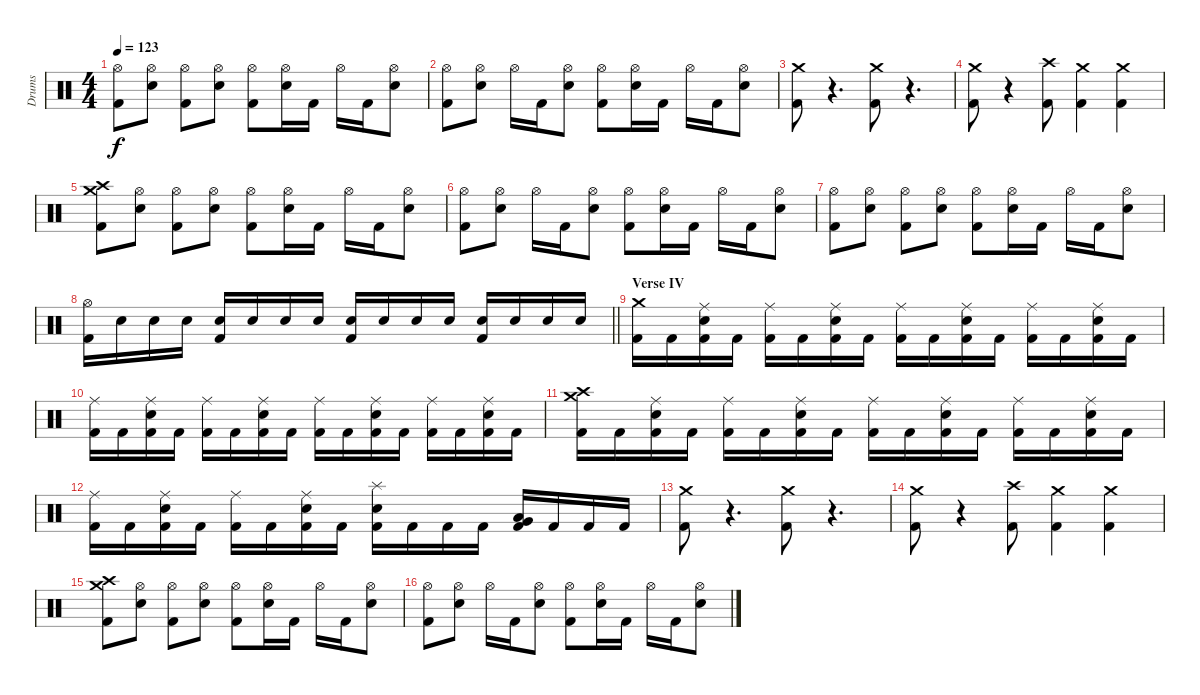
\track ("Drums" "Drums") {instrument percussion}
\staff {score}
\articulation defaults
\ts (4 4)
\tempo 123
\clef neutral
\ks c
("Hi-Hat (open)" "Kick (hit) 2").8{dy f} ("Hi-Hat (open)" "Electric Snare (hit)").8 ("Hi-Hat (open)" "Kick (hit) 2").8 ("Hi-Hat (open)" "Electric Snare (hit)").8 ("Hi-Hat (open)" "Kick (hit) 2").8 ("Hi-Hat (open)" "Electric Snare (hit)").16 "Kick (hit) 2".16 "Hi-Hat (open)".16 "Kick (hit) 2".16 ("Hi-Hat (open)" "Electric Snare (hit)").8 |
("Hi-Hat (open)" "Kick (hit) 2").8 ("Hi-Hat (open)" "Electric Snare (hit)").8 "Hi-Hat (open)".16 "Kick (hit) 2".16 ("Hi-Hat (open)" "Electric Snare (hit)").8 ("Hi-Hat (open)" "Kick (hit) 2").8 ("Hi-Hat (open)" "Electric Snare (hit)").16 "Kick (hit) 2".16 "Hi-Hat (open)".16 "Kick (hit) 2".16 ("Hi-Hat (open)" "Electric Snare (hit)").8 |
("Crash medium (hit)" "Kick (hit) 2").8 r.4{d volume 0} ("Crash medium (hit)" "Kick (hit) 2").8{volume 16} r.4{d volume 0} |
("Crash medium (hit)" "Kick (hit) 2").8{volume 16} r.4{volume 0} ("Crash high (hit)" "Kick (hit) 2").8{volume 16} ("Crash medium (hit)" "Kick (hit) 2").4 ("Crash medium (hit)" "Kick (hit) 2").4 |
("Crash medium (hit)" "Crash high (hit)" "Kick (hit) 2").8 ("Hi-Hat (open)" "Electric Snare (hit)").8 ("Hi-Hat (open)" "Kick (hit) 2").8 ("Hi-Hat (open)" "Electric Snare (hit)").8 ("Hi-Hat (open)" "Kick (hit) 2").8 ("Hi-Hat (open)" "Electric Snare (hit)").16 "Kick (hit) 2".16 "Hi-Hat (open)".16 "Kick (hit) 2".16 ("Hi-Hat (open)" "Electric Snare (hit)").8 |
("Hi-Hat (open)" "Kick (hit) 2").8 ("Hi-Hat (open)" "Electric Snare (hit)").8 "Hi-Hat (open)".16 "Kick (hit) 2".16 ("Hi-Hat (open)" "Electric Snare (hit)").8 ("Hi-Hat (open)" "Kick (hit) 2").8 ("Hi-Hat (open)" "Electric Snare (hit)").16 "Kick (hit) 2".16 "Hi-Hat (open)".16 "Kick (hit) 2".16 ("Hi-Hat (open)" "Electric Snare (hit)").8 |
("Hi-Hat (open)" "Kick (hit) 2").8 ("Hi-Hat (open)" "Electric Snare (hit)").8 ("Hi-Hat (open)" "Kick (hit) 2").8 ("Hi-Hat (open)" "Electric Snare (hit)").8 ("Hi-Hat (open)" "Kick (hit) 2").8 ("Hi-Hat (open)" "Electric Snare (hit)").16 "Kick (hit) 2".16 "Hi-Hat (open)".16 "Kick (hit) 2".16 ("Hi-Hat (open)" "Electric Snare (hit)").8 |
\barLineRight lightlight
("Hi-Hat (open)" "Kick (hit) 2").16 "Electric Snare (hit)".16 "Electric Snare (hit)".16 "Electric Snare (hit)".16 ("Electric Snare (hit)" "Kick (hit) 2").16 "Electric Snare (hit)".16 "Electric Snare (hit)".16 "Electric Snare (hit)".16 ("Electric Snare (hit)" "Kick (hit) 2").16 "Electric Snare (hit)".16 "Electric Snare (hit)".16 "Electric Snare (hit)".16 ("Electric Snare (hit)" "Kick (hit) 2").16 "Electric Snare (hit)".16 "Electric Snare (hit)".16 "Electric Snare (hit)".16 |
\section ("" "Verse IV")
("Crash medium (hit)" "Kick (hit) 2").16 "Kick (hit) 2".16 ("Ride (middle)" "Electric Snare (hit)" "Kick (hit) 2").16 "Kick (hit) 2".16 ("Ride (middle)" "Kick (hit) 2").16 "Kick (hit) 2".16 ("Ride (middle)" "Electric Snare (hit)" "Kick (hit) 2").16 "Kick (hit) 2".16 ("Ride (middle)" "Kick (hit) 2").16 "Kick (hit) 2".16 ("Ride (middle)" "Electric Snare (hit)" "Kick (hit) 2").16 "Kick (hit) 2".16 ("Ride (middle)" "Kick (hit) 2").16 "Kick (hit) 2".16 ("Ride (middle)" "Electric Snare (hit)" "Kick (hit) 2").16 "Kick (hit) 2".16 |
("Ride (middle)" "Kick (hit) 2").16 "Kick (hit) 2".16 ("Ride (middle)" "Electric Snare (hit)" "Kick (hit) 2").16 "Kick (hit) 2".16 ("Ride (middle)" "Kick (hit) 2").16 "Kick (hit) 2".16 ("Ride (middle)" "Electric Snare (hit)" "Kick (hit) 2").16 "Kick (hit) 2".16 ("Ride (middle)" "Kick (hit) 2").16 "Kick (hit) 2".16 ("Ride (middle)" "Electric Snare (hit)" "Kick (hit) 2").16 "Kick (hit) 2".16 ("Ride (middle)" "Kick (hit) 2").16 "Kick (hit) 2".16 ("Ride (middle)" "Electric Snare (hit)" "Kick (hit) 2").16 "Kick (hit) 2".16 |
("Crash medium (hit)" "Crash high (hit)" "Kick (hit) 2").16 "Kick (hit) 2".16 ("Ride (middle)" "Electric Snare (hit)" "Kick (hit) 2").16 "Kick (hit) 2".16 ("Ride (middle)" "Kick (hit) 2").16 "Kick (hit) 2".16 ("Ride (middle)" "Electric Snare (hit)" "Kick (hit) 2").16 "Kick (hit) 2".16 ("Ride (middle)" "Kick (hit) 2").16 "Kick (hit) 2".16 ("Ride (middle)" "Electric Snare (hit)" "Kick (hit) 2").16 "Kick (hit) 2".16 ("Ride (middle)" "Kick (hit) 2").16 "Kick (hit) 2".16 ("Ride (middle)" "Electric Snare (hit)" "Kick (hit) 2").16 "Kick (hit) 2".16 |
("Ride (middle)" "Kick (hit) 2").16 "Kick (hit) 2".16 ("Ride (middle)" "Electric Snare (hit)" "Kick (hit) 2").16 "Kick (hit) 2".16 ("Ride (middle)" "Kick (hit) 2").16 "Kick (hit) 2".16 ("Ride (middle)" "Electric Snare (hit)" "Kick (hit) 2").16 "Kick (hit) 2".16 ("Splash (hit)" "Electric Snare (hit)" "Kick (hit) 2").16 "Kick (hit) 2".16 "Kick (hit) 2".16 "Kick (hit) 2".16 ("Very Low Tom (hit)" "Low Floor Tom (hit)" "Kick (hit) 2").16 "Kick (hit) 2".16 "Kick (hit) 2".16 "Kick (hit) 2".16 |
("Crash medium (hit)" "Kick (hit) 2").8 r.4{d volume 0} ("Crash medium (hit)" "Kick (hit) 2").8{volume 16} r.4{d volume 0} |
("Crash medium (hit)" "Kick (hit) 2").8{volume 16} r.4{volume 0} ("Crash high (hit)" "Kick (hit) 2").8{volume 16} ("Crash medium (hit)" "Kick (hit) 2").4 ("Crash medium (hit)" "Kick (hit) 2").4 |
("Crash medium (hit)" "Crash high (hit)" "Kick (hit) 2").8 ("Hi-Hat (open)" "Electric Snare (hit)").8 ("Hi-Hat (open)" "Kick (hit) 2").8 ("Hi-Hat (open)" "Electric Snare (hit)").8 ("Hi-Hat (open)" "Kick (hit) 2").8 ("Hi-Hat (open)" "Electric Snare (hit)").16 "Kick (hit) 2".16 "Hi-Hat (open)".16 "Kick (hit) 2".16 ("Hi-Hat (open)" "Electric Snare (hit)").8 |
("Hi-Hat (open)" "Kick (hit) 2").8 ("Hi-Hat (open)" "Electric Snare (hit)").8 "Hi-Hat (open)".16 "Kick (hit) 2".16 ("Hi-Hat (open)" "Electric Snare (hit)").8 ("Hi-Hat (open)" "Kick (hit) 2").8 ("Hi-Hat (open)" "Electric Snare (hit)").16 "Kick (hit) 2".16 "Hi-Hat (open)".16 "Kick (hit) 2".16 ("Hi-Hat (open)" "Electric Snare (hit)").8
